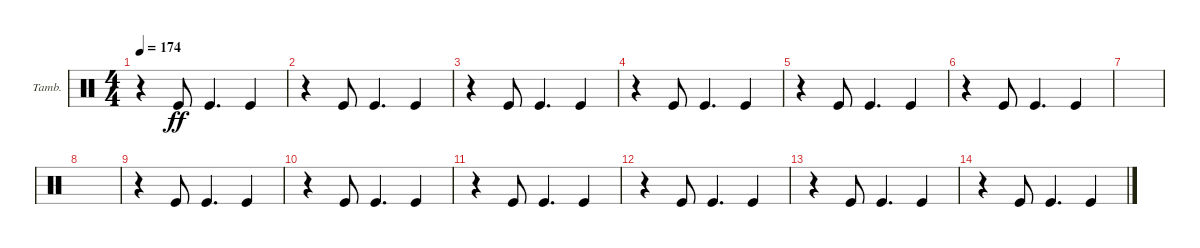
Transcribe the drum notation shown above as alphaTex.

\defaultSystemsLayout 4
\bracketExtendMode groupsimilarinstruments
\firstSystemTrackNameOrientation horizontal
\otherSystemsTrackNameOrientation horizontal
\track ("Tambourine (EJ Barnes)" "Tamb.") {instrument percussion}
\staff {score}
\articulation defaults
\ts (4 4)
\tempo 174
\clef neutral
\scale
0.333333
\ks c
r.4{dy ff} "Kick (hit)".8 "Kick (hit)".4{d} "Kick (hit)".4 |
\scale
0.333333 r.4 "Kick (hit)".8 "Kick (hit)".4{d} "Kick (hit)".4 |
\scale
0.333333 r.4 "Kick (hit)".8 "Kick (hit)".4{d} "Kick (hit)".4 |
\scale
0.333333 r.4 "Kick (hit)".8 "Kick (hit)".4{d} "Kick (hit)".4 |
\scale
0.333333 r.4 "Kick (hit)".8 "Kick (hit)".4{d} "Kick (hit)".4 |
\scale
0.333333 r.4 "Kick (hit)".8 "Kick (hit)".4{d} "Kick (hit)".4 |
\scale
0.333333 |
\scale
0.333333 |
\scale
0.333333 r.4 "Kick (hit)".8 "Kick (hit)".4{d} "Kick (hit)".4 |
\scale
0.333333 r.4 "Kick (hit)".8 "Kick (hit)".4{d} "Kick (hit)".4 |
\scale
0.333333 r.4 "Kick (hit)".8 "Kick (hit)".4{d} "Kick (hit)".4 |
\scale
0.333333 r.4 "Kick (hit)".8 "Kick (hit)".4{d} "Kick (hit)".4 |
\scale
0.333333 r.4 "Kick (hit)".8 "Kick (hit)".4{d} "Kick (hit)".4 |
\scale
0.333333 r.4 "Kick (hit)".8 "Kick (hit)".4{d} "Kick (hit)".4 |
\scale
0.333333 |
\scale
0.333333
